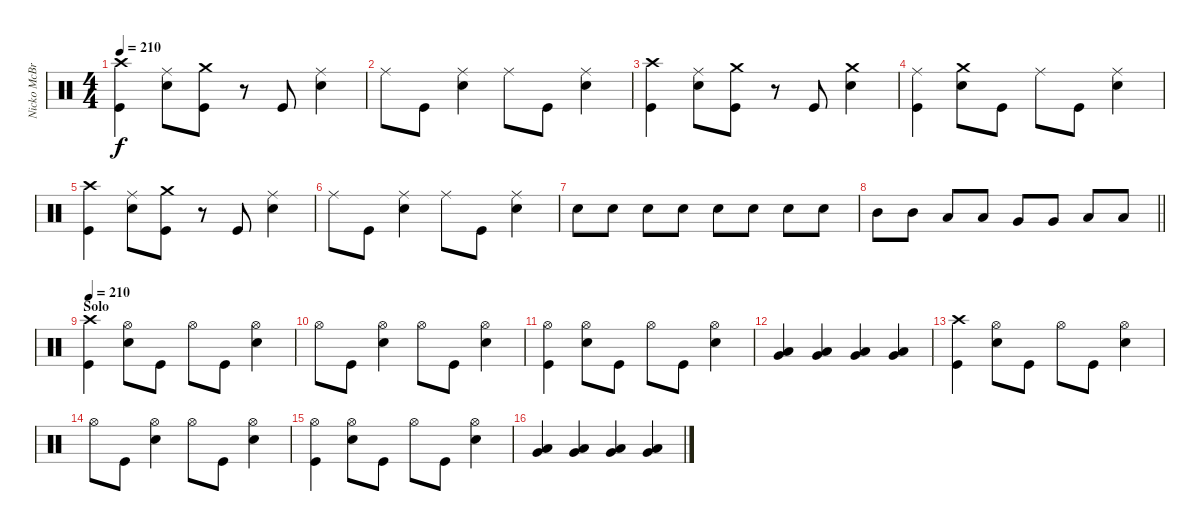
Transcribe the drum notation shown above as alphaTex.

\track ("Nicko McBrain" "Nicko McBr") {instrument percussion}
\staff {score}
\articulation defaults
\ts (4 4)
\tempo 210
\clef neutral
\ks c
("Crash high (hit)" "Kick (hit)").4{dy f} ("Ride (middle)" "Snare (hit) 2").8 ("Crash medium (hit)" "Kick (hit)").8 r.8 "Kick (hit)".8 ("Ride (middle)" "Snare (hit) 2").4 |
"Ride (middle)".8 "Kick (hit)".8 ("Ride (middle)" "Snare (hit) 2").4 "Ride (middle)".8 "Kick (hit)".8 ("Ride (middle)" "Snare (hit) 2").4 |
("Crash high (hit)" "Kick (hit)").4 ("Ride (middle)" "Snare (hit) 2").8 ("Crash medium (hit)" "Kick (hit)").8 r.8 "Kick (hit)".8 ("Crash medium (hit)" "Snare (hit) 2").4 |
("Ride (middle)" "Kick (hit)").4 ("Crash medium (hit)" "Snare (hit) 2").8 "Kick (hit)".8 "Ride (middle)".8 "Kick (hit)".8 ("Ride (middle)" "Snare (hit) 2").4 |
("Crash high (hit)" "Kick (hit)").4 ("Ride (middle)" "Snare (hit) 2").8 ("Crash medium (hit)" "Kick (hit)").8 r.8 "Kick (hit)".8 ("Ride (middle)" "Snare (hit) 2").4 |
"Ride (middle)".8 "Kick (hit)".8 ("Ride (middle)" "Snare (hit) 2").4 "Ride (middle)".8 "Kick (hit)".8 ("Ride (middle)" "Snare (hit) 2").4 |
"Snare (hit) 2".8 "Snare (hit) 2".8 "Snare (hit) 2".8 "Snare (hit) 2".8 "Snare (hit) 2".8 "Snare (hit) 2".8 "Snare (hit) 2".8 "Snare (hit) 2".8 |
\barLineRight lightlight "Mid Tom (hit)".8 "Mid Tom (hit)".8 "Low Tom (hit)".8 "Low Tom (hit)".8 "Very Low Tom (hit)".8 "Very Low Tom (hit)".8 "Low Floor Tom (hit)".8 "Low Floor Tom (hit)".8
|
\section ("" "Solo")
\tempo 210
("Crash high (hit)" "Kick (hit)").4 ("Hi-Hat (open)" "Snare (hit) 2").8 "Kick (hit)".8 "Hi-Hat (open)".8 "Kick (hit)".8 ("Hi-Hat (open)" "Snare (hit) 2").4 |
"Hi-Hat (open)".8 "Kick (hit)".8 ("Hi-Hat (open)" "Snare (hit) 2").4 "Hi-Hat (open)".8 "Kick (hit)".8 ("Hi-Hat (open)" "Snare (hit) 2").4 |
("Hi-Hat (open)" "Kick (hit)").4 ("Hi-Hat (open)" "Snare (hit) 2").8 "Kick (hit)".8 "Hi-Hat (open)".8 "Kick (hit)".8 ("Hi-Hat (open)" "Snare (hit) 2").4 |
("Low Tom (hit)" "Very Low Tom (hit)").4 ("Low Tom (hit)" "Very Low Tom (hit)").4 ("Very Low Tom (hit)" "Low Floor Tom (hit)").4 ("Very Low Tom (hit)" "Low Floor Tom (hit)").4 |
("Crash high (hit)" "Kick (hit)").4 ("Hi-Hat (open)" "Snare (hit) 2").8 "Kick (hit)".8 "Hi-Hat (open)".8 "Kick (hit)".8 ("Hi-Hat (open)" "Snare (hit) 2").4 |
"Hi-Hat (open)".8 "Kick (hit)".8 ("Hi-Hat (open)" "Snare (hit) 2").4 "Hi-Hat (open)".8 "Kick (hit)".8 ("Hi-Hat (open)" "Snare (hit) 2").4 |
("Hi-Hat (open)" "Kick (hit)").4 ("Hi-Hat (open)" "Snare (hit) 2").8 "Kick (hit)".8 "Hi-Hat (open)".8 "Kick (hit)".8 ("Hi-Hat (open)" "Snare (hit) 2").4 |
("Low Tom (hit)" "Very Low Tom (hit)").4 ("Low Tom (hit)" "Very Low Tom (hit)").4 ("Very Low Tom (hit)" "Low Floor Tom (hit)").4 ("Very Low Tom (hit)" "Low Floor Tom (hit)").4
